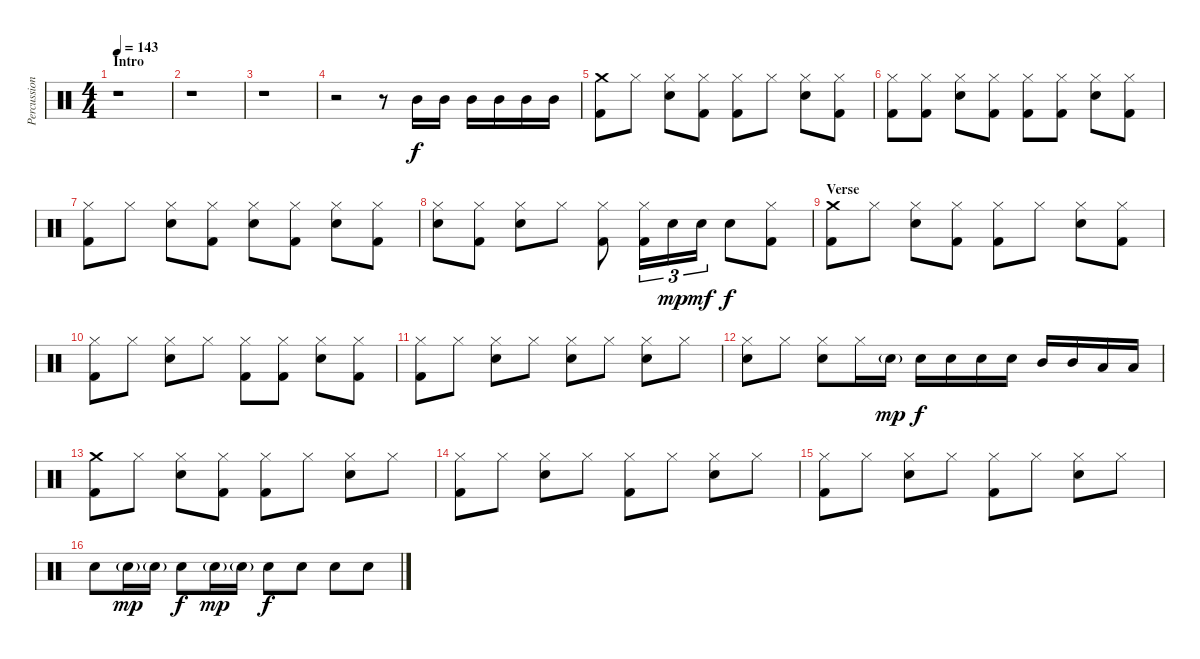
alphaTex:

\track ("Percussion" "Percussion") {instrument percussion}
\staff {score}
\articulation defaults
\ts (4 4)
\section ("" "Intro")
\tempo 143
\clef neutral
\ks c
r.1{dy f} |
r.1 |
r.1 |
r.2 r.8 "Mid Tom (hit)".16 "Mid Tom (hit)".16 "Mid Tom (hit)".16 "Mid Tom (hit)".16 "Mid Tom (hit)".16 "Mid Tom (hit)".16 |
("Crash medium (hit)" "Kick (hit) 2").8 "Hi-Hat (closed)".8 ("Hi-Hat (closed)" "Electric Snare (hit)").8 ("Hi-Hat (closed)" "Kick (hit) 2").8 ("Hi-Hat (closed)" "Kick (hit) 2").8 "Hi-Hat (closed)".8 ("Hi-Hat (closed)" "Electric Snare (hit)").8 ("Hi-Hat (closed)" "Kick (hit) 2").8 |
("Hi-Hat (closed)" "Kick (hit) 2").8 ("Hi-Hat (closed)" "Kick (hit) 2").8 ("Hi-Hat (closed)" "Electric Snare (hit)").8 ("Hi-Hat (closed)" "Kick (hit) 2").8 ("Hi-Hat (closed)" "Kick (hit) 2").8 ("Hi-Hat (closed)" "Kick (hit) 2").8 ("Hi-Hat (closed)" "Electric Snare (hit)").8 ("Hi-Hat (closed)" "Kick (hit) 2").8 |
("Hi-Hat (closed)" "Kick (hit) 2").8 "Hi-Hat (closed)".8 ("Hi-Hat (closed)" "Electric Snare (hit)").8 ("Hi-Hat (closed)" "Kick (hit) 2").8 ("Hi-Hat (closed)" "Electric Snare (hit)").8 ("Hi-Hat (closed)" "Kick (hit) 2").8 ("Hi-Hat (closed)" "Electric Snare (hit)").8 ("Hi-Hat (closed)" "Kick (hit) 2").8 |
("Hi-Hat (closed)" "Electric Snare (hit)").8 ("Hi-Hat (closed)" "Kick (hit) 2").8 ("Hi-Hat (closed)" "Electric Snare (hit)").8 "Hi-Hat (closed)".8 ("Hi-Hat (closed)" "Kick (hit) 2").8 ("Hi-Hat (closed)" "Kick (hit) 2").16{tu (3 2)} "Electric Snare (hit)".16{tu (3 2) dy mp} "Electric Snare (hit)".16{tu (3 2) dy mf} "Electric Snare (hit)".8{dy f} ("Hi-Hat (closed)" "Kick (hit) 2").8 |
\section ("" "Verse")
("Crash medium (hit)" "Kick (hit) 2").8 "Hi-Hat (closed)".8 ("Hi-Hat (closed)" "Electric Snare (hit)").8 ("Hi-Hat (closed)" "Kick (hit) 2").8 ("Hi-Hat (closed)" "Kick (hit) 2").8 "Hi-Hat (closed)".8 ("Hi-Hat (closed)" "Electric Snare (hit)").8 ("Hi-Hat (closed)" "Kick (hit) 2").8 |
("Hi-Hat (closed)" "Kick (hit) 2").8 "Hi-Hat (closed)".8 ("Hi-Hat (closed)" "Electric Snare (hit)").8 "Hi-Hat (closed)".8 ("Hi-Hat (closed)" "Kick (hit) 2").8 ("Hi-Hat (closed)" "Kick (hit) 2").8 ("Hi-Hat (closed)" "Electric Snare (hit)").8 ("Hi-Hat (closed)" "Kick (hit) 2").8 |
("Hi-Hat (closed)" "Kick (hit) 2").8 "Hi-Hat (closed)".8 ("Hi-Hat (closed)" "Electric Snare (hit)").8 "Hi-Hat (closed)".8 ("Hi-Hat (closed)" "Electric Snare (hit)").8 "Hi-Hat (closed)".8 ("Hi-Hat (closed)" "Electric Snare (hit)").8 "Hi-Hat (closed)".8 |
("Hi-Hat (closed)" "Electric Snare (hit)").8 "Hi-Hat (closed)".8 ("Hi-Hat (closed)" "Electric Snare (hit)").8 "Hi-Hat (closed)".16 "Electric Snare (hit)"{g}.16{dy mp} "Electric Snare (hit)".16{dy f} "Electric Snare (hit)".16 "Electric Snare (hit)".16 "Electric Snare (hit)".16 "Mid Tom (hit)".16 "Mid Tom (hit)".16 "Low Tom (hit)".16 "Low Tom (hit)".16 |
("Crash medium (hit)" "Kick (hit) 2").8 "Hi-Hat (closed)".8 ("Hi-Hat (closed)" "Electric Snare (hit)").8 ("Hi-Hat (closed)" "Kick (hit) 2").8 ("Hi-Hat (closed)" "Kick (hit) 2").8 "Hi-Hat (closed)".8 ("Hi-Hat (closed)" "Electric Snare (hit)").8 "Hi-Hat (closed)".8 |
("Hi-Hat (closed)" "Kick (hit) 2").8 "Hi-Hat (closed)".8 ("Hi-Hat (closed)" "Electric Snare (hit)").8 "Hi-Hat (closed)".8 ("Hi-Hat (closed)" "Kick (hit) 2").8 "Hi-Hat (closed)".8 ("Hi-Hat (closed)" "Electric Snare (hit)").8 "Hi-Hat (closed)".8 |
("Hi-Hat (closed)" "Kick (hit) 2").8 "Hi-Hat (closed)".8 ("Hi-Hat (closed)" "Electric Snare (hit)").8 "Hi-Hat (closed)".8 ("Hi-Hat (closed)" "Kick (hit) 2").8 "Hi-Hat (closed)".8 ("Hi-Hat (closed)" "Electric Snare (hit)").8 "Hi-Hat (closed)".8 |
"Electric Snare (hit)".8 "Electric Snare (hit)"{g}.16{dy mp} "Electric Snare (hit)"{g}.16 "Electric Snare (hit)".8{dy f} "Electric Snare (hit)"{g}.16{dy mp} "Electric Snare (hit)"{g}.16 "Electric Snare (hit)".8{dy f} "Electric Snare (hit)".8 "Electric Snare (hit)".8 "Electric Snare (hit)".8
